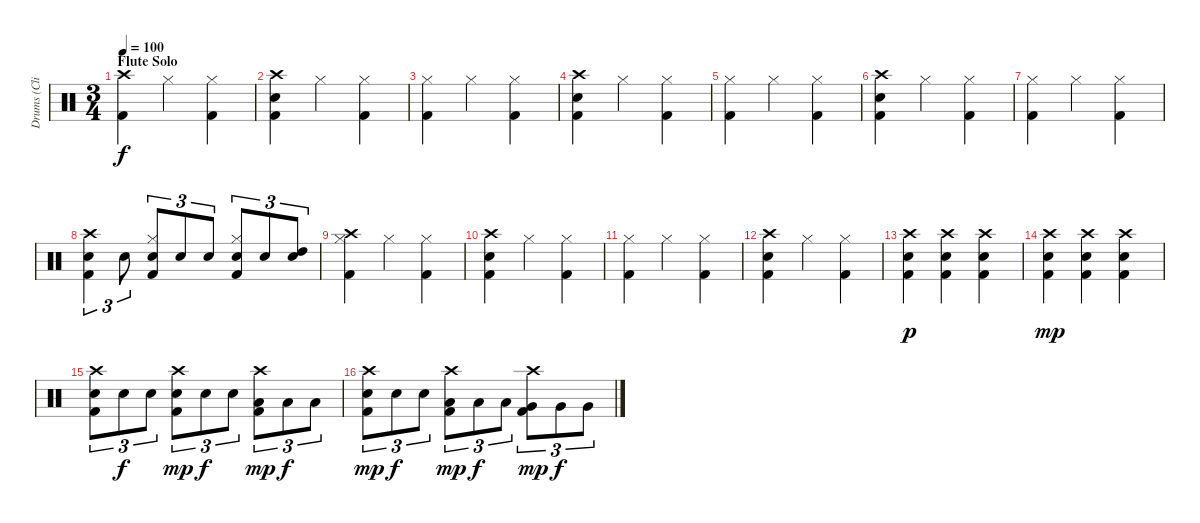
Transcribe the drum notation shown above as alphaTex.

\track ("Drums (Clive Bunker)" "Drums (Cli") {instrument percussion}
\staff {score}
\articulation defaults
\ts (3 4)
\section ("" "Flute Solo")
\tempo 100
\clef neutral
\ks c
("Crash high (hit)" "Kick (hit) 2").4{dy f} "Hi-Hat (closed)".4 ("Hi-Hat (closed)" "Kick (hit) 2").4 |
("Crash high (hit)" "Snare (hit) 2" "Kick (hit) 2").4 "Hi-Hat (closed)".4 ("Hi-Hat (closed)" "Kick (hit) 2").4 |
("Hi-Hat (closed)" "Kick (hit) 2").4 "Hi-Hat (closed)".4 ("Hi-Hat (closed)" "Kick (hit) 2").4 |
("Crash high (hit)" "Snare (hit) 2" "Kick (hit) 2").4 "Hi-Hat (closed)".4 ("Hi-Hat (closed)" "Kick (hit) 2").4 |
("Hi-Hat (closed)" "Kick (hit) 2").4 "Hi-Hat (closed)".4 ("Hi-Hat (closed)" "Kick (hit) 2").4 |
("Crash high (hit)" "Snare (hit) 2" "Kick (hit) 2").4 "Hi-Hat (closed)".4 ("Hi-Hat (closed)" "Kick (hit) 2").4 |
("Hi-Hat (closed)" "Kick (hit) 2").4 "Hi-Hat (closed)".4 ("Hi-Hat (closed)" "Kick (hit) 2").4 |
("Crash high (hit)" "Snare (hit) 2" "Kick (hit) 2").4{tu (3 2)} "Electric Snare (hit)".8{tu (3 2)} ("Hi-Hat (closed)" "Snare (hit) 2" "Kick (hit) 2").8{tu (3 2)} "Snare (hit) 2".8{tu (3 2)} "Electric Snare (hit)".8{tu (3 2)} ("Hi-Hat (closed)" "Snare (hit) 2" "Kick (hit) 2").8{tu (3 2)} "Snare (hit) 2".8{tu (3 2)} ("Electric Snare (hit)" "High Tom (hit)").8{tu (3 2)} |
("Crash high (hit)" "Hi-Hat (closed)" "Kick (hit) 2").4 "Hi-Hat (closed)".4 ("Hi-Hat (closed)" "Kick (hit) 2").4 |
("Crash high (hit)" "Snare (hit) 2" "Kick (hit) 2").4 "Hi-Hat (closed)".4 ("Hi-Hat (closed)" "Kick (hit) 2").4 |
("Hi-Hat (closed)" "Kick (hit) 2").4 "Hi-Hat (closed)".4 ("Hi-Hat (closed)" "Kick (hit) 2").4 |
("Crash high (hit)" "Snare (hit) 2" "Kick (hit) 2").4 "Hi-Hat (closed)".4 ("Hi-Hat (closed)" "Kick (hit) 2").4 |
("Crash high (hit)" "Snare (hit) 2" "Kick (hit) 2").4{dy p} ("Crash high (hit)" "Snare (hit) 2" "Kick (hit) 2").4 ("Crash high (hit)" "Snare (hit) 2" "Kick (hit) 2").4 |
("Crash high (hit)" "Snare (hit) 2" "Kick (hit) 2").4{dy mp} ("Crash high (hit)" "Snare (hit) 2" "Kick (hit) 2").4 ("Crash high (hit)" "Snare (hit) 2" "Kick (hit) 2").4 |
("Crash high (hit)" "Snare (hit) 2" "Kick (hit) 2").8{tu (3 2)} "Snare (hit) 2".8{tu (3 2) dy f} "Snare (hit) 2".8{tu (3 2)} ("Crash high (hit)" "Snare (hit) 2" "Kick (hit) 2").8{tu (3 2) dy mp} "Snare (hit) 2".8{tu (3 2) dy f} "Snare (hit) 2".8{tu (3 2)} ("Crash high (hit)" "Low Tom (hit)" "Kick (hit) 2").8{tu (3 2) dy mp} "Low Tom (hit)".8{tu (3 2) dy f} "Low Tom (hit)".8{tu (3 2)} |
("Crash high (hit)" "Snare (hit) 2" "Kick (hit) 2").8{tu (3 2) dy mp} "Snare (hit) 2".8{tu (3 2) dy f} "Snare (hit) 2".8{tu (3 2)} ("Crash high (hit)" "Low Tom (hit)" "Kick (hit) 2").8{tu (3 2) dy mp} "Low Tom (hit)".8{tu (3 2) dy f} "Low Tom (hit)".8{tu (3 2)} ("Crash high (hit)" "Very Low Tom (hit)" "Kick (hit) 2").8{tu (3 2) dy mp} "Very Low Tom (hit)".8{tu (3 2) dy f} "Very Low Tom (hit)".8{tu (3 2)}
